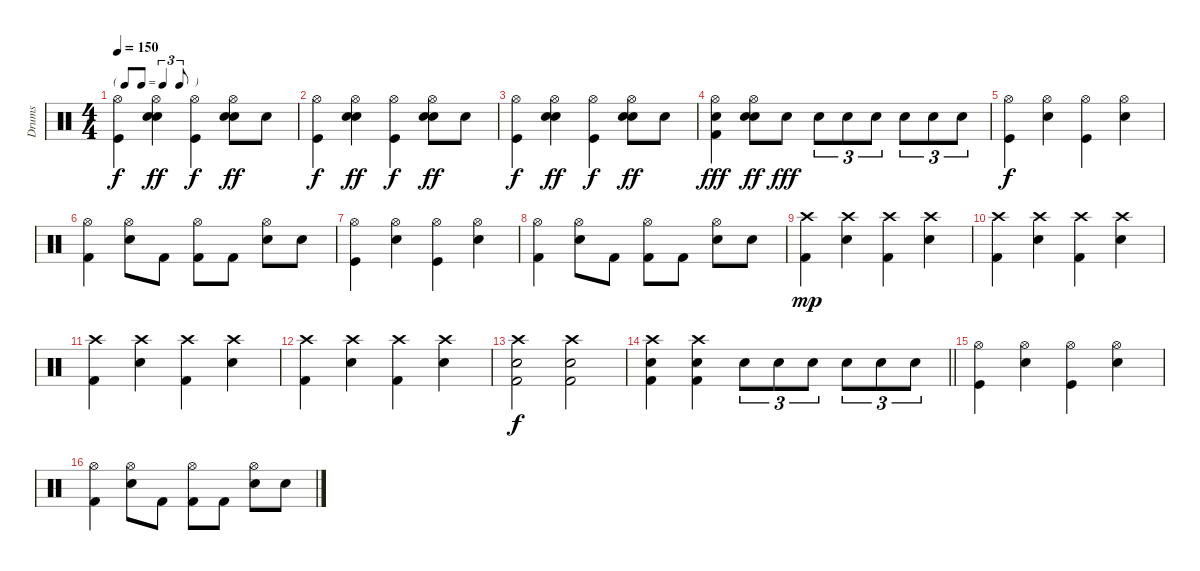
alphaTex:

\track ("Drums" "Drums") {instrument percussion}
\staff {score}
\articulation defaults
\ts (4 4)
\tf triplet8th
\tempo 150
\clef neutral
\ks c
("Hi-Hat (open)" "Kick (hit)").4{dy f} ("Hand Clap (hit)" "Hi-Hat (open)" "Snare (hit) 2").4{dy ff} ("Hi-Hat (open)" "Kick (hit)").4{dy f} ("Hand Clap (hit)" "Hi-Hat (open)" "Snare (hit) 2").8{dy ff} "Hand Clap (hit)".8 |
("Hi-Hat (open)" "Kick (hit)").4{dy f} ("Hand Clap (hit)" "Hi-Hat (open)" "Snare (hit) 2").4{dy ff} ("Hi-Hat (open)" "Kick (hit)").4{dy f} ("Hand Clap (hit)" "Hi-Hat (open)" "Snare (hit) 2").8{dy ff} "Hand Clap (hit)".8 |
("Hi-Hat (open)" "Kick (hit)").4{dy f} ("Hand Clap (hit)" "Hi-Hat (open)" "Snare (hit) 2").4{dy ff} ("Hi-Hat (open)" "Kick (hit)").4{dy f} ("Hand Clap (hit)" "Hi-Hat (open)" "Snare (hit) 2").8{dy ff} "Hand Clap (hit)".8 |
("Hi-Hat (open)" "Snare (hit) 2" "Kick (hit) 2").4{dy fff} ("Hand Clap (hit)" "Hi-Hat (open)" "Snare (hit) 2").8{dy ff} "Snare (hit) 2".8{dy fff} "Snare (hit) 2".8{tu (3 2)} "Snare (hit) 2".8{tu (3 2)} "Snare (hit) 2".8{tu (3 2)} "Snare (hit) 2".8{tu (3 2)} "Snare (hit) 2".8{tu (3 2)} "Snare (hit) 2".8{tu (3 2)} |
("Hi-Hat (open)" "Kick (hit)").4{dy f} ("Hi-Hat (open)" "Snare (hit) 2").4 ("Hi-Hat (open)" "Kick (hit)").4 ("Hi-Hat (open)" "Snare (hit) 2").4 |
("Hi-Hat (open)" "Kick (hit) 2").4 ("Hi-Hat (open)" "Snare (hit) 2").8 "Kick (hit) 2".8 ("Hi-Hat (open)" "Kick (hit) 2").8 "Kick (hit) 2".8 ("Hi-Hat (open)" "Snare (hit) 2").8 "Snare (hit) 2".8 |
("Hi-Hat (open)" "Kick (hit)").4 ("Hi-Hat (open)" "Snare (hit) 2").4 ("Hi-Hat (open)" "Kick (hit)").4 ("Hi-Hat (open)" "Snare (hit) 2").4 |
("Hi-Hat (open)" "Kick (hit) 2").4 ("Hi-Hat (open)" "Snare (hit) 2").8 "Kick (hit) 2".8 ("Hi-Hat (open)" "Kick (hit) 2").8 "Kick (hit) 2".8 ("Hi-Hat (open)" "Snare (hit) 2").8 "Snare (hit) 2".8 |
("Crash high (hit)" "Kick (hit) 2").4{dy mp} ("Crash high (hit)" "Snare (hit) 2").4 ("Crash high (hit)" "Kick (hit) 2").4 ("Crash high (hit)" "Snare (hit) 2").4 |
("Crash high (hit)" "Kick (hit) 2").4 ("Crash high (hit)" "Snare (hit) 2").4 ("Crash high (hit)" "Kick (hit) 2").4 ("Crash high (hit)" "Snare (hit) 2").4 |
("Crash high (hit)" "Kick (hit) 2").4 ("Crash high (hit)" "Snare (hit) 2").4 ("Crash high (hit)" "Kick (hit) 2").4 ("Crash high (hit)" "Snare (hit) 2").4 |
("Crash high (hit)" "Kick (hit) 2").4 ("Crash high (hit)" "Snare (hit) 2").4 ("Crash high (hit)" "Kick (hit) 2").4 ("Crash high (hit)" "Snare (hit) 2").4 |
("Crash high (hit)" "Snare (hit) 2" "Kick (hit) 2").2{dy f} ("Crash high (hit)" "Snare (hit) 2" "Kick (hit) 2").2 |
\barLineRight lightlight
("Crash high (hit)" "Snare (hit) 2" "Kick (hit) 2").4 ("Crash high (hit)" "Snare (hit) 2" "Kick (hit) 2").4 "Snare (hit) 2".8{tu (3 2)} "Snare (hit) 2".8{tu (3 2)} "Snare (hit) 2".8{tu (3 2)} "Snare (hit) 2".8{tu (3 2)} "Snare (hit) 2".8{tu (3 2)} "Snare (hit) 2".8{tu (3 2)} |
("Hi-Hat (open)" "Kick (hit)").4 ("Hi-Hat (open)" "Snare (hit) 2").4 ("Hi-Hat (open)" "Kick (hit)").4 ("Hi-Hat (open)" "Snare (hit) 2").4 |
("Hi-Hat (open)" "Kick (hit) 2").4 ("Hi-Hat (open)" "Snare (hit) 2").8 "Kick (hit) 2".8 ("Hi-Hat (open)" "Kick (hit) 2").8 "Kick (hit) 2".8 ("Hi-Hat (open)" "Snare (hit) 2").8 "Snare (hit) 2".8
